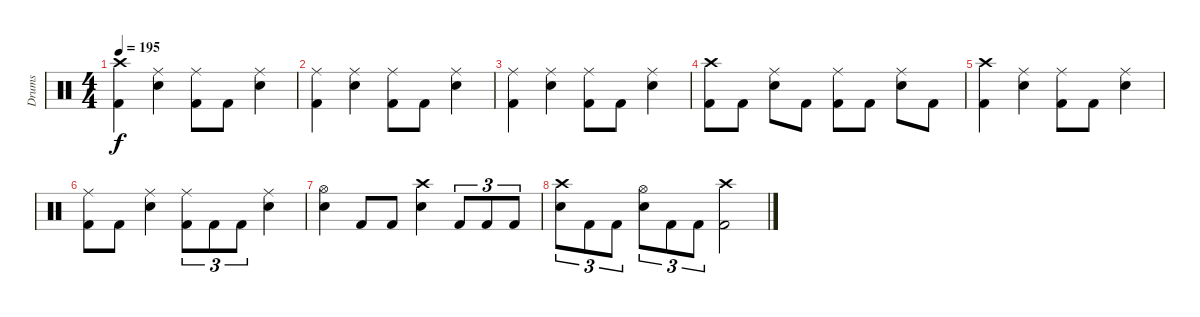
\track ("Drums" "Drums") {instrument percussion}
\staff {score}
\articulation defaults
\ts (4 4)
\tempo 195
\clef neutral
\ks c
("Crash high (hit)" "Kick (hit) 2").4{dy f} ("Ride (middle)" "Snare (hit) 2").4 ("Ride (middle)" "Kick (hit) 2").8 "Kick (hit) 2".8 ("Ride (middle)" "Snare (hit) 2").4 |
("Ride (middle)" "Kick (hit) 2").4 ("Ride (middle)" "Snare (hit) 2").4 ("Ride (middle)" "Kick (hit) 2").8 "Kick (hit) 2".8 ("Ride (middle)" "Snare (hit) 2").4 |
("Ride (middle)" "Kick (hit) 2").4 ("Ride (middle)" "Snare (hit) 2").4 ("Ride (middle)" "Kick (hit) 2").8 "Kick (hit) 2".8 ("Ride (middle)" "Snare (hit) 2").4 |
("Crash high (hit)" "Kick (hit) 2").8 "Kick (hit) 2".8 ("Ride (middle)" "Snare (hit) 2").8 "Kick (hit) 2".8 ("Ride (middle)" "Kick (hit) 2").8 "Kick (hit) 2".8 ("Ride (middle)" "Snare (hit) 2").8 "Kick (hit) 2".8 |
("Crash high (hit)" "Kick (hit) 2").4 ("Ride (middle)" "Snare (hit) 2").4 ("Ride (middle)" "Kick (hit) 2").8 "Kick (hit) 2".8 ("Ride (middle)" "Snare (hit) 2").4 |
("Ride (middle)" "Kick (hit) 2").8 "Kick (hit) 2".8 ("Ride (middle)" "Snare (hit) 2").4 ("Ride (middle)" "Kick (hit) 2").8{tu (3 2)} "Kick (hit) 2".8{tu (3 2)} "Kick (hit) 2".8{tu (3 2)} ("Ride (middle)" "Snare (hit) 2").4 |
("Hi-Hat (open)" "Snare (hit) 2").4 "Kick (hit) 2".8 "Kick (hit) 2".8 ("Crash high (hit)" "Snare (hit) 2").4 "Kick (hit) 2".8{tu (3 2)} "Kick (hit) 2".8{tu (3 2)} "Kick (hit) 2".8{tu (3 2)} |
("Crash high (hit)" "Snare (hit) 2").8{tu (3 2)} "Kick (hit) 2".8{tu (3 2)} "Kick (hit) 2".8{tu (3 2)} ("Hi-Hat (open)" "Snare (hit) 2").8{tu (3 2)} "Kick (hit) 2".8{tu (3 2)} "Kick (hit) 2".8{tu (3 2)} ("Crash high (hit)" "Kick (hit) 2").2
